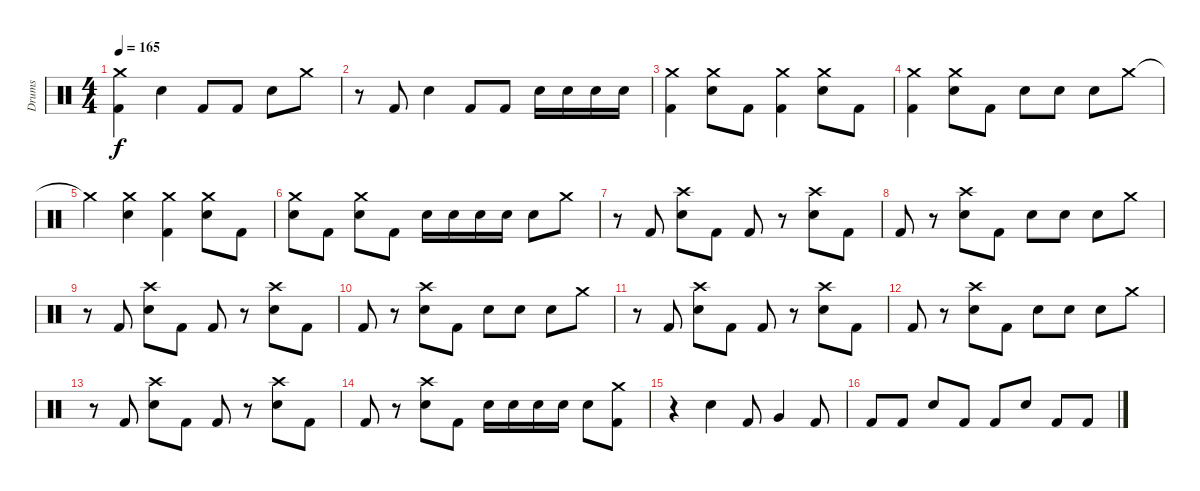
\track ("Drums" "Drums") {instrument percussion}
\staff {score}
\articulation defaults
\ts (4 4)
\tempo 165
\clef neutral
\ks c
("Crash medium (hit)" "Kick (hit) 2").4{dy f} "Snare (hit) 2".4 "Kick (hit) 2".8 "Kick (hit) 2".8 "Snare (hit) 2".8 "Crash medium (hit)".8 |
r.8 "Kick (hit) 2".8 "Snare (hit) 2".4 "Kick (hit) 2".8 "Kick (hit) 2".8 "Snare (hit) 2".16 "Snare (hit) 2".16 "Snare (hit) 2".16 "Snare (hit) 2".16 |
("Crash medium (hit)" "Kick (hit) 2").4 ("Crash medium (hit)" "Snare (hit) 2").8 "Kick (hit) 2".8 ("Crash medium (hit)" "Kick (hit) 2").4 ("Crash medium (hit)" "Snare (hit) 2").8 "Kick (hit) 2".8 |
("Crash medium (hit)" "Kick (hit) 2").4 ("Crash medium (hit)" "Snare (hit) 2").8 "Kick (hit) 2".8 "Snare (hit) 2".8 "Snare (hit) 2".8 "Snare (hit) 2".8 "Crash medium (hit)".8 |
"Crash medium (hit)"{t}.4 ("Crash medium (hit)" "Snare (hit) 2").4 ("Crash medium (hit)" "Kick (hit) 2").4 ("Crash medium (hit)" "Snare (hit) 2").8 "Kick (hit) 2".8 |
("Crash medium (hit)" "Snare (hit) 2").8 "Kick (hit) 2".8 ("Crash medium (hit)" "Snare (hit) 2").8 "Kick (hit) 2".8 "Snare (hit) 2".16 "Snare (hit) 2".16 "Snare (hit) 2".16 "Snare (hit) 2".16 "Snare (hit) 2".8 "Crash medium (hit)".8 |
r.8 "Kick (hit) 2".8 ("Crash high (hit)" "Snare (hit) 2").8 "Kick (hit) 2".8 "Kick (hit) 2".8 r.8 ("Crash high (hit)" "Snare (hit) 2").8 "Kick (hit) 2".8 |
"Kick (hit) 2".8 r.8 ("Crash high (hit)" "Snare (hit) 2").8 "Kick (hit) 2".8 "Snare (hit) 2".8 "Snare (hit) 2".8 "Snare (hit) 2".8 "Crash medium (hit)".8 |
r.8 "Kick (hit) 2".8 ("Crash high (hit)" "Snare (hit) 2").8 "Kick (hit) 2".8 "Kick (hit) 2".8 r.8 ("Crash high (hit)" "Snare (hit) 2").8 "Kick (hit) 2".8 |
"Kick (hit) 2".8 r.8 ("Crash high (hit)" "Snare (hit) 2").8 "Kick (hit) 2".8 "Snare (hit) 2".8 "Snare (hit) 2".8 "Snare (hit) 2".8 "Crash medium (hit)".8 |
r.8 "Kick (hit) 2".8 ("Crash high (hit)" "Snare (hit) 2").8 "Kick (hit) 2".8 "Kick (hit) 2".8 r.8 ("Crash high (hit)" "Snare (hit) 2").8 "Kick (hit) 2".8 |
"Kick (hit) 2".8 r.8 ("Crash high (hit)" "Snare (hit) 2").8 "Kick (hit) 2".8 "Snare (hit) 2".8 "Snare (hit) 2".8 "Snare (hit) 2".8 "Crash medium (hit)".8 |
r.8 "Kick (hit) 2".8 ("Crash high (hit)" "Snare (hit) 2").8 "Kick (hit) 2".8 "Kick (hit) 2".8 r.8 ("Crash high (hit)" "Snare (hit) 2").8 "Kick (hit) 2".8 |
"Kick (hit) 2".8 r.8 ("Crash high (hit)" "Snare (hit) 2").8 "Kick (hit) 2".8 "Snare (hit) 2".16 "Snare (hit) 2".16 "Snare (hit) 2".16 "Snare (hit) 2".16 "Snare (hit) 2".8 ("Crash medium (hit)" "Kick (hit) 2").8 |
r.4 "Snare (hit) 2".4 "Kick (hit) 2".8 "Very Low Tom (hit)".4 "Kick (hit) 2".8 |
"Kick (hit) 2".8 "Kick (hit) 2".8 "Snare (hit) 2".8 "Kick (hit) 2".8 "Kick (hit) 2".8 "Snare (hit) 2".8 "Kick (hit) 2".8 "Kick (hit) 2".8
